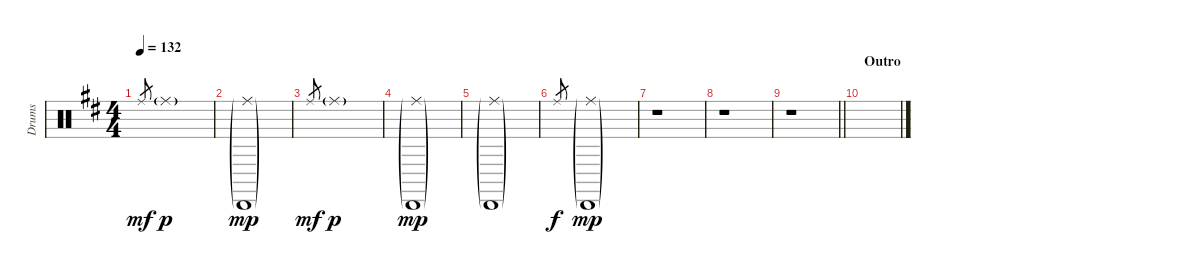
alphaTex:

\track ("Drums" "Drums") {instrument percussion}
\staff {score}
\articulation defaults
\ts (4 4)
\tempo 132
\clef neutral
\ks d "Ride (middle)".8{gr dy mf} "Ride (middle)"{g}.1{dy p}
|
("Cabasa (hit)"{g} "Ride (middle)"{g}).1{dy mp} |
"Ride (middle)".8{gr dy mf} "Ride (middle)"{g}.1{dy p} |
("Cabasa (hit)"{g} "Ride (middle)"{g}).1{dy mp} |
("Cabasa (hit)"{g} "Ride (middle)"{g}).1 |
"Ride (middle)".8{gr dy f} ("Cabasa (hit)"{g} "Ride (middle)"{g}).1{bd 480 dy mp} |
r.1 |
r.1 |
\barLineRight lightlight
r.1 |
\section ("" "Outro")
